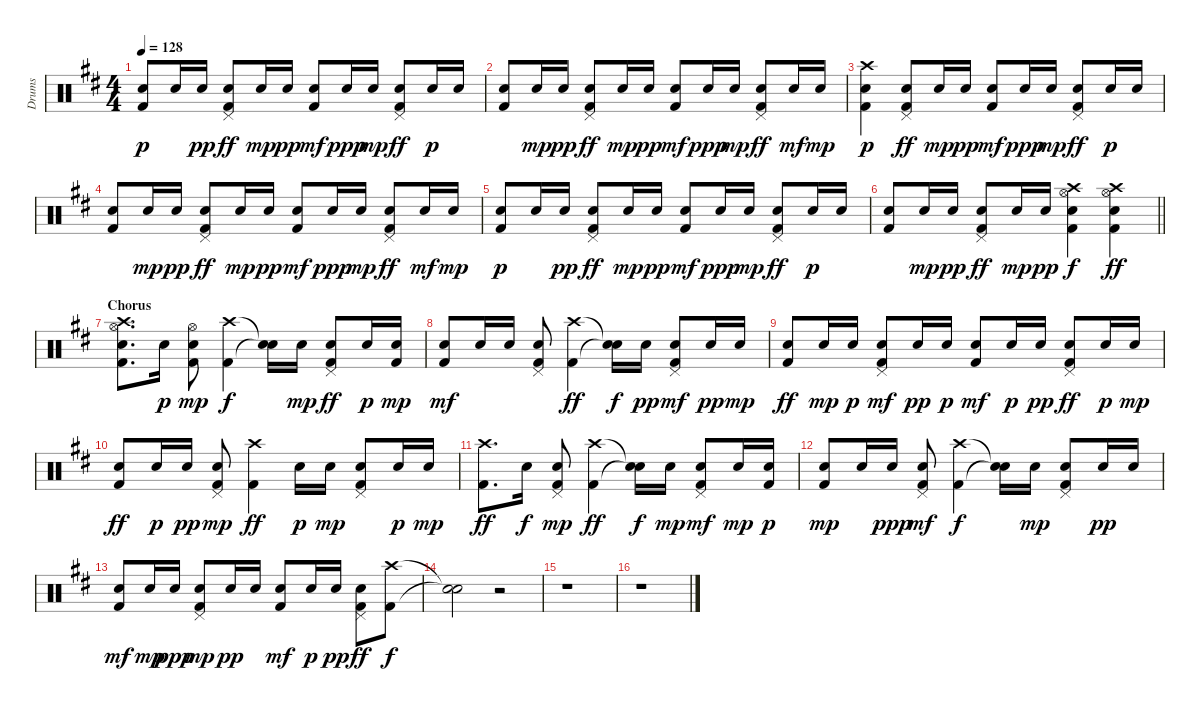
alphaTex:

\track ("Drums" "Drums") {instrument percussion}
\staff {score}
\articulation defaults
\ts (4 4)
\tempo 128
\clef neutral
\ks d
("Kick (hit) 2" "Snare (hit) 2").8{dy p} "Snare (hit) 2".16 "Snare (hit) 2".16{dy pp} ("Kick (hit) 2" "Snare (hit) 2" "Pedal Hi-Hat (hit)").8{dy ff} "Snare (hit) 2".16{dy mp} "Snare (hit) 2".16{dy pp} ("Kick (hit) 2" "Snare (hit) 2").8{dy mf} "Snare (hit) 2".16{dy ppp} "Snare (hit) 2".16{dy mp} ("Kick (hit) 2" "Snare (hit) 2" "Pedal Hi-Hat (hit)").8{dy ff} "Snare (hit) 2".16{dy p} "Snare (hit) 2".16 |
("Kick (hit) 2" "Snare (hit) 2").8 "Snare (hit) 2".16{dy mp} "Snare (hit) 2".16{dy pp} ("Kick (hit) 2" "Snare (hit) 2" "Pedal Hi-Hat (hit)").8{dy ff} "Snare (hit) 2".16{dy mp} "Snare (hit) 2".16{dy pp} ("Kick (hit) 2" "Snare (hit) 2").8{dy mf} "Snare (hit) 2".16{dy ppp} "Snare (hit) 2".16{dy mp} ("Kick (hit) 2" "Snare (hit) 2" "Pedal Hi-Hat (hit)").8{dy ff} "Snare (hit) 2".16{dy mf} "Snare (hit) 2".16{dy mp} |
("Kick (hit) 2" "Snare (hit) 2" "Crash high (hit)").4{dy p} ("Kick (hit) 2" "Snare (hit) 2" "Pedal Hi-Hat (hit)").8{dy ff} "Snare (hit) 2".16{dy mp} "Snare (hit) 2".16{dy pp} ("Kick (hit) 2" "Snare (hit) 2").8{dy mf} "Snare (hit) 2".16{dy ppp} "Snare (hit) 2".16{dy mp} ("Kick (hit) 2" "Snare (hit) 2" "Pedal Hi-Hat (hit)").8{dy ff} "Snare (hit) 2".16{dy p} "Snare (hit) 2".16 |
("Kick (hit) 2" "Snare (hit) 2").8 "Snare (hit) 2".16{dy mp} "Snare (hit) 2".16{dy pp} ("Kick (hit) 2" "Snare (hit) 2" "Pedal Hi-Hat (hit)").8{dy ff} "Snare (hit) 2".16{dy mp} "Snare (hit) 2".16{dy pp} ("Kick (hit) 2" "Snare (hit) 2").8{dy mf} "Snare (hit) 2".16{dy ppp} "Snare (hit) 2".16{dy mp} ("Kick (hit) 2" "Snare (hit) 2" "Pedal Hi-Hat (hit)").8{dy ff} "Snare (hit) 2".16{dy mf} "Snare (hit) 2".16{dy mp} |
("Kick (hit) 2" "Snare (hit) 2").8{dy p} "Snare (hit) 2".16 "Snare (hit) 2".16{dy pp} ("Kick (hit) 2" "Snare (hit) 2" "Pedal Hi-Hat (hit)").8{dy ff} "Snare (hit) 2".16{dy mp} "Snare (hit) 2".16{dy pp} ("Kick (hit) 2" "Snare (hit) 2").8{dy mf} "Snare (hit) 2".16{dy ppp} "Snare (hit) 2".16{dy mp} ("Kick (hit) 2" "Snare (hit) 2" "Pedal Hi-Hat (hit)").8{dy ff} "Snare (hit) 2".16{dy p} "Snare (hit) 2".16 |
\barLineRight lightlight
("Kick (hit) 2" "Snare (hit) 2").8 "Snare (hit) 2".16{dy mp} "Snare (hit) 2".16{dy pp} ("Kick (hit) 2" "Snare (hit) 2" "Pedal Hi-Hat (hit)").8{dy ff} "Snare (hit) 2".16{dy mp} "Snare (hit) 2".16{dy pp} ("Kick (hit) 2" "Snare (hit) 2" "Hi-Hat (open)" "Crash high (hit)").4{dy f} ("Kick (hit) 2" "Snare (hit) 2" "Hi-Hat (open)" "Crash high (hit)").4{dy ff} |
\section ("" "Chorus")
("Kick (hit) 2" "Snare (hit) 2" "Hi-Hat (open)" "Crash high (hit)").8{d} "Snare (hit) 2".16{dy p} ("Kick (hit) 2" "Snare (hit) 2" "Hi-Hat (open)").8{dy mp} ("Kick (hit) 2" "Crash high (hit)").4{dy f} ("Snare (hit)"{t} "Snare (hit)"{t}).16 "Snare (hit) 2".16{dy mp} ("Kick (hit) 2" "Snare (hit) 2" "Pedal Hi-Hat (hit)").8{dy ff} "Snare (hit) 2".16{dy p} ("Kick (hit) 2" "Snare (hit) 2").16{dy mp} |
("Kick (hit) 2" "Snare (hit) 2").8{dy mf} "Snare (hit) 2".16 "Snare (hit) 2".16 ("Kick (hit) 2" "Snare (hit) 2" "Pedal Hi-Hat (hit)").8 ("Kick (hit) 2" "Crash high (hit)").4{dy ff} ("Snare (hit)"{t} "Snare (hit)"{t}).16{dy f} "Snare (hit) 2".16{dy pp} ("Kick (hit) 2" "Snare (hit) 2" "Pedal Hi-Hat (hit)").8{dy mf} "Snare (hit) 2".16{dy pp} "Snare (hit) 2".16{dy mp} |
("Kick (hit) 2" "Snare (hit) 2").8{dy ff} "Snare (hit) 2".16{dy mp} "Snare (hit) 2".16{dy p} ("Kick (hit) 2" "Snare (hit) 2" "Pedal Hi-Hat (hit)").8{dy mf} "Snare (hit) 2".16{dy pp} "Snare (hit) 2".16{dy p} ("Kick (hit) 2" "Snare (hit) 2").8{dy mf} "Snare (hit) 2".16{dy p} "Snare (hit) 2".16{dy pp} ("Kick (hit) 2" "Snare (hit) 2" "Pedal Hi-Hat (hit)").8{dy ff} "Snare (hit) 2".16{dy p} "Snare (hit) 2".16{dy mp} |
("Kick (hit) 2" "Snare (hit) 2").8{dy ff} "Snare (hit) 2".16{dy p} "Snare (hit) 2".16{dy pp} ("Kick (hit) 2" "Snare (hit) 2" "Pedal Hi-Hat (hit)").8{dy mp} ("Kick (hit) 2" "Crash high (hit)").4{dy ff} "Snare (hit) 2".16{dy p} "Snare (hit) 2".16{dy mp} ("Kick (hit) 2" "Snare (hit) 2" "Pedal Hi-Hat (hit)").8 "Snare (hit) 2".16{dy p} "Snare (hit) 2".16{dy mp} |
("Kick (hit) 2" "Crash high (hit)").8{d dy ff} "Snare (hit) 2".16{dy f} ("Kick (hit) 2" "Snare (hit) 2" "Pedal Hi-Hat (hit)").8{dy mp} ("Kick (hit) 2" "Crash high (hit)").4{dy ff} ("Snare (hit)"{t} "Snare (hit)"{t}).16{dy f} "Snare (hit) 2".16{dy mp} ("Kick (hit) 2" "Snare (hit) 2" "Pedal Hi-Hat (hit)").8{dy mf} "Snare (hit) 2".16{dy mp} ("Kick (hit) 2" "Snare (hit) 2").16{dy p} |
("Kick (hit) 2" "Snare (hit) 2").8{dy mp} "Snare (hit) 2".16 "Snare (hit) 2".16{dy ppp} ("Kick (hit) 2" "Snare (hit) 2" "Pedal Hi-Hat (hit)").8{dy mf} ("Kick (hit) 2" "Crash high (hit)").4{dy f} ("Snare (hit)"{t} "Snare (hit)"{t}).16 "Snare (hit) 2".16{dy mp} ("Kick (hit) 2" "Snare (hit) 2" "Pedal Hi-Hat (hit)").8 "Snare (hit) 2".16{dy pp} "Snare (hit) 2".16 |
("Kick (hit) 2" "Snare (hit) 2").8{dy mf} "Snare (hit) 2".16{dy mp} "Snare (hit) 2".16{dy ppp} ("Kick (hit) 2" "Snare (hit) 2" "Pedal Hi-Hat (hit)").8{dy mp} "Snare (hit) 2".16{dy pp} "Snare (hit) 2".16 ("Kick (hit) 2" "Snare (hit) 2").8{dy mf} "Snare (hit) 2".16{dy p} "Snare (hit) 2".16{dy pp} ("Kick (hit) 2" "Snare (hit) 2" "Pedal Hi-Hat (hit)").8{dy ff} ("Kick (hit) 2" "Crash high (hit)").8{dy f} |
("Snare (hit)"{t} "Snare (hit)"{t}).2 r.2 |
r.1 |
r.1
